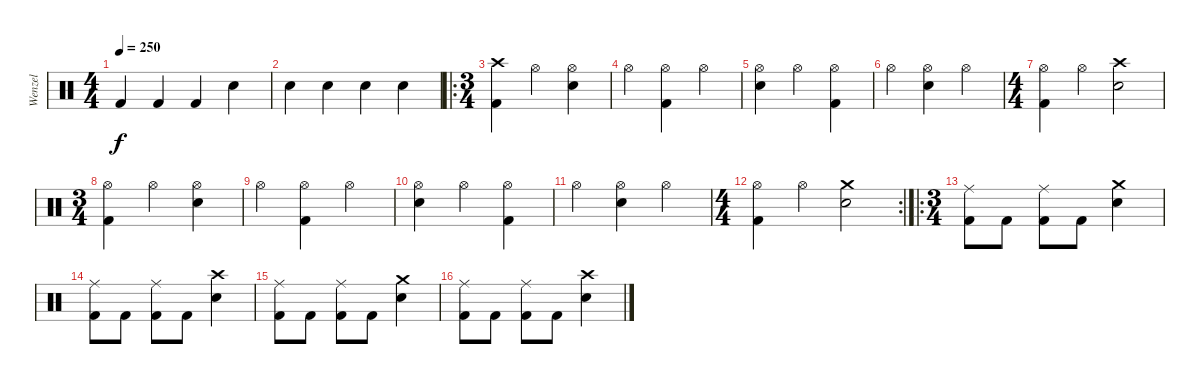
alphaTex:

\track ("Wenzel" "Wenzel") {instrument percussion}
\staff {score}
\articulation defaults
\ts (4 4)
\tempo 250
\clef neutral
\ks c "Kick (hit) 2".4{dy f} "Kick (hit) 2".4 "Kick (hit) 2".4 "Snare (hit) 2".4
|
"Snare (hit) 2".4 "Snare (hit) 2".4 "Snare (hit) 2".4 "Snare (hit) 2".4 |
\ro
\ts (3 4)
("Crash high (hit)" "Kick (hit) 2").4 "Hi-Hat (open)".4 ("Hi-Hat (open)" "Snare (hit) 2").4 |
"Hi-Hat (open)".4 ("Hi-Hat (open)" "Kick (hit) 2").4 "Hi-Hat (open)".4 |
("Hi-Hat (open)" "Snare (hit) 2").4 "Hi-Hat (open)".4 ("Hi-Hat (open)" "Kick (hit) 2").4 |
"Hi-Hat (open)".4 ("Hi-Hat (open)" "Snare (hit) 2").4 "Hi-Hat (open)".4 |
\ts (4 4)
("Hi-Hat (open)" "Kick (hit) 2").4 "Hi-Hat (open)".4 ("Crash high (hit)" "Snare (hit) 2").2 |
\ts (3 4)
("Hi-Hat (open)" "Kick (hit) 2").4 "Hi-Hat (open)".4 ("Hi-Hat (open)" "Snare (hit) 2").4 |
"Hi-Hat (open)".4 ("Hi-Hat (open)" "Kick (hit) 2").4 "Hi-Hat (open)".4 |
("Hi-Hat (open)" "Snare (hit) 2").4 "Hi-Hat (open)".4 ("Hi-Hat (open)" "Kick (hit) 2").4 |
"Hi-Hat (open)".4 ("Hi-Hat (open)" "Snare (hit) 2").4 "Hi-Hat (open)".4 |
\rc 2
\ts (4 4)
("Hi-Hat (open)" "Kick (hit) 2").4 "Hi-Hat (open)".4 ("Crash medium (hit)" "Snare (hit) 2").2 |
\ro
\ts (3 4)
("Ride (middle)" "Kick (hit) 2").8 "Kick (hit) 2".8 ("Ride (middle)" "Kick (hit) 2").8 "Kick (hit) 2".8 ("Crash medium (hit)" "Snare (hit) 2").4 |
("Ride (middle)" "Kick (hit) 2").8 "Kick (hit) 2".8 ("Ride (middle)" "Kick (hit) 2").8 "Kick (hit) 2".8 ("Crash high (hit)" "Snare (hit) 2").4 |
("Ride (middle)" "Kick (hit) 2").8 "Kick (hit) 2".8 ("Ride (middle)" "Kick (hit) 2").8 "Kick (hit) 2".8 ("Crash medium (hit)" "Snare (hit) 2").4 |
("Ride (middle)" "Kick (hit) 2").8 "Kick (hit) 2".8 ("Ride (middle)" "Kick (hit) 2").8 "Kick (hit) 2".8 ("Crash high (hit)" "Snare (hit) 2").4
